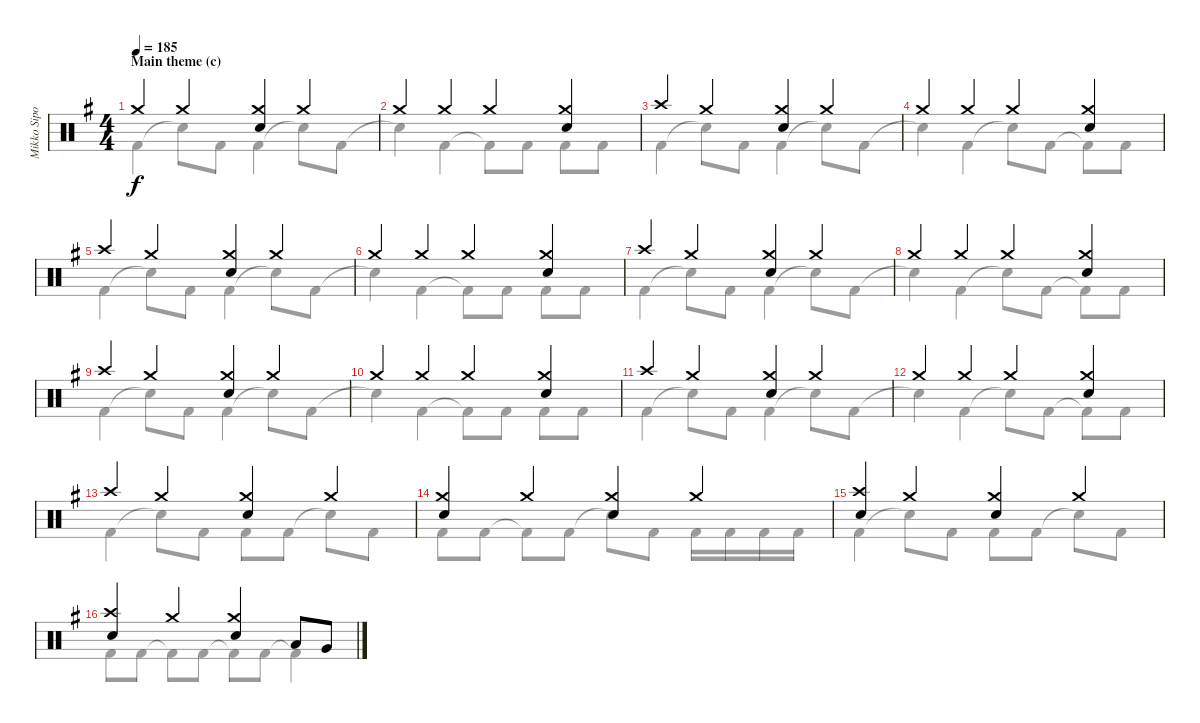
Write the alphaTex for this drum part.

\track ("Mikko Sipola (drums)" "Mikko Sipo") {instrument percussion}
\staff {score}
\articulation defaults
\voice
\ts (4 4)
\section ("" "Main theme (c)")
\tempo 185
\clef neutral
\ks eminor "Crash medium (hit)".4{dy f} "Crash medium (hit)".4
("Crash medium (hit)" "Electric Snare (hit)").4 "Crash medium (hit)".4 |
"Crash medium (hit)".4 "Crash medium (hit)".4 "Crash medium (hit)".4 ("Crash medium (hit)" "Electric Snare (hit)").4 |
"Crash high (hit)".4 "Crash medium (hit)".4 ("Crash medium (hit)" "Electric Snare (hit)").4 "Crash medium (hit)".4 |
"Crash medium (hit)".4 "Crash medium (hit)".4 "Crash medium (hit)".4 ("Crash medium (hit)" "Electric Snare (hit)").4 |
"Crash high (hit)".4 "Crash medium (hit)".4 ("Crash medium (hit)" "Electric Snare (hit)").4 "Crash medium (hit)".4 |
"Crash medium (hit)".4 "Crash medium (hit)".4 "Crash medium (hit)".4 ("Crash medium (hit)" "Electric Snare (hit)").4 |
"Crash high (hit)".4 "Crash medium (hit)".4 ("Crash medium (hit)" "Electric Snare (hit)").4 "Crash medium (hit)".4 |
"Crash medium (hit)".4 "Crash medium (hit)".4 "Crash medium (hit)".4 ("Crash medium (hit)" "Electric Snare (hit)").4 |
"Crash high (hit)".4 "Crash medium (hit)".4 ("Crash medium (hit)" "Electric Snare (hit)").4 "Crash medium (hit)".4 |
"Crash medium (hit)".4 "Crash medium (hit)".4 "Crash medium (hit)".4 ("Crash medium (hit)" "Electric Snare (hit)").4 |
"Crash high (hit)".4 "Crash medium (hit)".4 ("Crash medium (hit)" "Electric Snare (hit)").4 "Crash medium (hit)".4 |
"Crash medium (hit)".4 "Crash medium (hit)".4 "Crash medium (hit)".4 ("Crash medium (hit)" "Electric Snare (hit)").4 |
"Crash high (hit)".4 "Crash medium (hit)".4 ("Crash medium (hit)" "Electric Snare (hit)").4 "Crash medium (hit)".4 |
("Crash medium (hit)" "Electric Snare (hit)").4 "Crash medium (hit)".4 ("Crash medium (hit)" "Electric Snare (hit)").4 "Crash medium (hit)".4 |
("Crash high (hit)" "Electric Snare (hit)").4 "Crash medium (hit)".4 ("Crash medium (hit)" "Electric Snare (hit)").4 "Crash medium (hit)".4 |
("Crash high (hit)" "Electric Snare (hit)").4 "Crash medium (hit)".4 ("Crash medium (hit)" "Electric Snare (hit)").4 "Low Tom (hit)".8 "Very Low Tom (hit)".8
\voice
\clef neutral
\ottava regular
\simile none
\ks eminor "Kick (hit) 2".4{dy f} "Snare (hit)"{t}.8 "Kick (hit) 2".8 "Kick (hit) 2".4 "Snare (hit)"{t}.8 "Kick (hit) 2".8
|
"Snare (hit)"{t}.4 "Kick (hit) 2".4 "Kick (hit) 2"{t}.8 "Kick (hit) 2".8 "Kick (hit) 2".8 "Kick (hit) 2".8 |
"Kick (hit) 2".4 "Snare (hit)"{t}.8 "Kick (hit) 2".8 "Kick (hit) 2".4 "Snare (hit)"{t}.8 "Kick (hit) 2".8 |
"Snare (hit)"{t}.4 "Kick (hit) 2".4 "Snare (hit)"{t}.8 "Kick (hit) 2".8 "Kick (hit) 2"{t}.8 "Kick (hit) 2".8 |
"Kick (hit) 2".4 "Snare (hit)"{t}.8 "Kick (hit) 2".8 "Kick (hit) 2".4 "Snare (hit)"{t}.8 "Kick (hit) 2".8 |
"Snare (hit)"{t}.4 "Kick (hit) 2".4 "Kick (hit) 2"{t}.8 "Kick (hit) 2".8 "Kick (hit) 2".8 "Kick (hit) 2".8 |
"Kick (hit) 2".4 "Snare (hit)"{t}.8 "Kick (hit) 2".8 "Kick (hit) 2".4 "Snare (hit)"{t}.8 "Kick (hit) 2".8 |
"Snare (hit)"{t}.4 "Kick (hit) 2".4 "Snare (hit)"{t}.8 "Kick (hit) 2".8 "Kick (hit) 2"{t}.8 "Kick (hit) 2".8 |
"Kick (hit) 2".4 "Snare (hit)"{t}.8 "Kick (hit) 2".8 "Kick (hit) 2".4 "Snare (hit)"{t}.8 "Kick (hit) 2".8 |
"Snare (hit)"{t}.4 "Kick (hit) 2".4 "Kick (hit) 2"{t}.8 "Kick (hit) 2".8 "Kick (hit) 2".8 "Kick (hit) 2".8 |
"Kick (hit) 2".4 "Snare (hit)"{t}.8 "Kick (hit) 2".8 "Kick (hit) 2".4 "Snare (hit)"{t}.8 "Kick (hit) 2".8 |
"Snare (hit)"{t}.4 "Kick (hit) 2".4 "Snare (hit)"{t}.8 "Kick (hit) 2".8 "Kick (hit) 2"{t}.8 "Kick (hit) 2".8 |
"Kick (hit) 2".4 "Snare (hit)"{t}.8 "Kick (hit) 2".8 "Kick (hit) 2".8 "Kick (hit) 2".8 "Snare (hit)"{t}.8 "Kick (hit) 2".8 |
"Kick (hit) 2".8 "Kick (hit) 2".8 "Kick (hit) 2"{t}.8 "Kick (hit) 2".8 "Snare (hit)"{t}.8 "Kick (hit) 2".8 "Kick (hit) 2".16 "Kick (hit) 2".16 "Kick (hit) 2".16 "Kick (hit) 2".16 |
"Kick (hit) 2".4 "Snare (hit)"{t}.8 "Kick (hit) 2".8 "Kick (hit) 2".8 "Kick (hit) 2".8 "Snare (hit)"{t}.8 "Kick (hit) 2".8 |
"Kick (hit) 2".8 "Kick (hit) 2".8 "Kick (hit) 2"{t}.8 "Kick (hit) 2".8 "Kick (hit) 2"{t}.8 "Kick (hit) 2".8 "Kick (hit) 2"{t}.4
